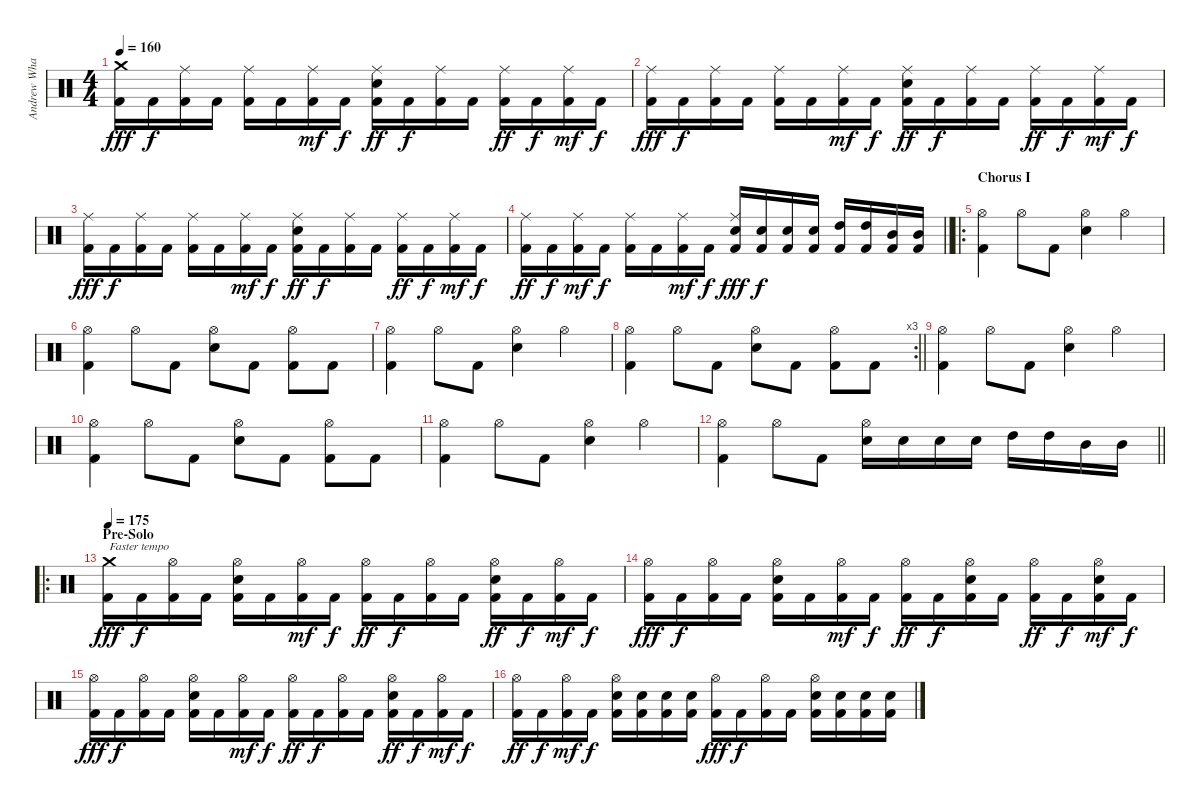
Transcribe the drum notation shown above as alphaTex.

\track ("Andrew Whale" "Andrew Wha") {instrument percussion}
\staff {score}
\articulation defaults
\ts (4 4)
\tempo 160
\clef neutral
\ks c
("Crash medium (hit)" "Kick (hit) 2").16{dy fff} "Kick (hit) 2".16{dy f} ("Ride (middle)" "Kick (hit) 2").16 "Kick (hit) 2".16 ("Ride (middle)" "Kick (hit) 2").16 "Kick (hit) 2".16 ("Ride (middle)" "Kick (hit) 2").16{dy mf} "Kick (hit) 2".16{dy f} ("Ride (middle)" "Snare (hit) 2" "Kick (hit) 2").16{dy ff} "Kick (hit) 2".16{dy f} ("Ride (middle)" "Kick (hit) 2").16 "Kick (hit) 2".16 ("Ride (middle)" "Kick (hit) 2").16{dy ff} "Kick (hit) 2".16{dy f} ("Ride (middle)" "Kick (hit) 2").16{dy mf} "Kick (hit) 2".16{dy f} |
("Ride (middle)" "Kick (hit) 2").16{dy fff} "Kick (hit) 2".16{dy f} ("Ride (middle)" "Kick (hit) 2").16 "Kick (hit) 2".16 ("Ride (middle)" "Kick (hit) 2").16 "Kick (hit) 2".16 ("Ride (middle)" "Kick (hit) 2").16{dy mf} "Kick (hit) 2".16{dy f} ("Ride (middle)" "Snare (hit) 2" "Kick (hit) 2").16{dy ff} "Kick (hit) 2".16{dy f} ("Ride (middle)" "Kick (hit) 2").16 "Kick (hit) 2".16 ("Ride (middle)" "Kick (hit) 2").16{dy ff} "Kick (hit) 2".16{dy f} ("Ride (middle)" "Kick (hit) 2").16{dy mf} "Kick (hit) 2".16{dy f} |
("Ride (middle)" "Kick (hit) 2").16{dy fff} "Kick (hit) 2".16{dy f} ("Ride (middle)" "Kick (hit) 2").16 "Kick (hit) 2".16 ("Ride (middle)" "Kick (hit) 2").16 "Kick (hit) 2".16 ("Ride (middle)" "Kick (hit) 2").16{dy mf} "Kick (hit) 2".16{dy f} ("Ride (middle)" "Snare (hit) 2" "Kick (hit) 2").16{dy ff} "Kick (hit) 2".16{dy f} ("Ride (middle)" "Kick (hit) 2").16 "Kick (hit) 2".16 ("Ride (middle)" "Kick (hit) 2").16{dy ff} "Kick (hit) 2".16{dy f} ("Ride (middle)" "Kick (hit) 2").16{dy mf} "Kick (hit) 2".16{dy f} |
\barLineRight lightlight
("Ride (middle)" "Kick (hit) 2").16{dy ff} "Kick (hit) 2".16{dy f} ("Ride (middle)" "Kick (hit) 2").16{dy mf} "Kick (hit) 2".16{dy f} ("Ride (middle)" "Kick (hit) 2").16 "Kick (hit) 2".16 ("Ride (middle)" "Kick (hit) 2").16{dy mf} "Kick (hit) 2".16{dy f} ("Ride (middle)" "Snare (hit) 2" "Kick (hit) 2").16{dy fff} ("Snare (hit) 2" "Kick (hit) 2").16{dy f} ("Snare (hit) 2" "Kick (hit) 2").16 ("Snare (hit) 2" "Kick (hit) 2").16 ("High Tom (hit)" "Kick (hit) 2").16 ("High Tom (hit)" "Kick (hit) 2").16 ("Mid Tom (hit)" "Kick (hit) 2").16 ("Mid Tom (hit)" "Kick (hit) 2").16 |
\ro
\section ("" "Chorus I")
("Hi-Hat (open)" "Kick (hit) 2").4 "Hi-Hat (open)".8 "Kick (hit) 2".8 ("Hi-Hat (open)" "Snare (hit) 2").4 "Hi-Hat (open)".4 |
("Hi-Hat (open)" "Kick (hit) 2").4 "Hi-Hat (open)".8 "Kick (hit) 2".8 ("Hi-Hat (open)" "Snare (hit) 2").8 "Kick (hit) 2".8 ("Hi-Hat (open)" "Kick (hit) 2").8 "Kick (hit) 2".8 |
("Hi-Hat (open)" "Kick (hit) 2").4 "Hi-Hat (open)".8 "Kick (hit) 2".8 ("Hi-Hat (open)" "Snare (hit) 2").4 "Hi-Hat (open)".4 |
\rc 3
\barLineRight lightlight
("Hi-Hat (open)" "Kick (hit) 2").4 "Hi-Hat (open)".8 "Kick (hit) 2".8 ("Hi-Hat (open)" "Snare (hit) 2").8 "Kick (hit) 2".8 ("Hi-Hat (open)" "Kick (hit) 2").8 "Kick (hit) 2".8 |
("Hi-Hat (open)" "Kick (hit) 2").4 "Hi-Hat (open)".8 "Kick (hit) 2".8 ("Hi-Hat (open)" "Snare (hit) 2").4 "Hi-Hat (open)".4 |
("Hi-Hat (open)" "Kick (hit) 2").4 "Hi-Hat (open)".8 "Kick (hit) 2".8 ("Hi-Hat (open)" "Snare (hit) 2").8 "Kick (hit) 2".8 ("Hi-Hat (open)" "Kick (hit) 2").8 "Kick (hit) 2".8 |
("Hi-Hat (open)" "Kick (hit) 2").4 "Hi-Hat (open)".8 "Kick (hit) 2".8 ("Hi-Hat (open)" "Snare (hit) 2").4 "Hi-Hat (open)".4 |
\barLineRight lightlight
("Hi-Hat (open)" "Kick (hit) 2").4 "Hi-Hat (open)".8 "Kick (hit) 2".8 ("Hi-Hat (open)" "Snare (hit) 2").16 "Snare (hit) 2".16 "Snare (hit) 2".16 "Snare (hit) 2".16 "High Tom (hit)".16 "High Tom (hit)".16 "Mid Tom (hit)".16 "Mid Tom (hit)".16 |
\ro
\section ("" "Pre-Solo")
\tempo 175
("Crash medium (hit)" "Kick (hit) 2").16{txt "Faster tempo" dy fff} "Kick (hit) 2".16{dy f} ("Hi-Hat (open)" "Kick (hit) 2").16 "Kick (hit) 2".16 ("Hi-Hat (open)" "Snare (hit) 2" "Kick (hit) 2").16 "Kick (hit) 2".16 ("Hi-Hat (open)" "Kick (hit) 2").16{dy mf} "Kick (hit) 2".16{dy f} ("Hi-Hat (open)" "Kick (hit) 2").16{dy ff} "Kick (hit) 2".16{dy f} ("Hi-Hat (open)" "Kick (hit) 2").16 "Kick (hit) 2".16 ("Hi-Hat (open)" "Snare (hit) 2" "Kick (hit) 2").16{dy ff} "Kick (hit) 2".16{dy f} ("Hi-Hat (open)" "Kick (hit) 2").16{dy mf} "Kick (hit) 2".16{dy f} |
("Hi-Hat (open)" "Kick (hit) 2").16{dy fff} "Kick (hit) 2".16{dy f} ("Hi-Hat (open)" "Kick (hit) 2").16 "Kick (hit) 2".16 ("Hi-Hat (open)" "Snare (hit) 2" "Kick (hit) 2").16 "Kick (hit) 2".16 ("Hi-Hat (open)" "Kick (hit) 2").16{dy mf} "Kick (hit) 2".16{dy f} ("Hi-Hat (open)" "Kick (hit) 2").16{dy ff} "Kick (hit) 2".16{dy f} ("Hi-Hat (open)" "Snare (hit) 2" "Kick (hit) 2").16 "Kick (hit) 2".16 ("Hi-Hat (open)" "Kick (hit) 2").16{dy ff} "Kick (hit) 2".16{dy f} ("Hi-Hat (open)" "Snare (hit) 2" "Kick (hit) 2").16{dy mf} "Kick (hit) 2".16{dy f} |
("Hi-Hat (open)" "Kick (hit) 2").16{dy fff} "Kick (hit) 2".16{dy f} ("Hi-Hat (open)" "Kick (hit) 2").16 "Kick (hit) 2".16 ("Hi-Hat (open)" "Snare (hit) 2" "Kick (hit) 2").16 "Kick (hit) 2".16 ("Hi-Hat (open)" "Kick (hit) 2").16{dy mf} "Kick (hit) 2".16{dy f} ("Hi-Hat (open)" "Kick (hit) 2").16{dy ff} "Kick (hit) 2".16{dy f} ("Hi-Hat (open)" "Kick (hit) 2").16 "Kick (hit) 2".16 ("Hi-Hat (open)" "Snare (hit) 2" "Kick (hit) 2").16{dy ff} "Kick (hit) 2".16{dy f} ("Hi-Hat (open)" "Kick (hit) 2").16{dy mf} "Kick (hit) 2".16{dy f} |
("Hi-Hat (open)" "Kick (hit) 2").16{dy ff} "Kick (hit) 2".16{dy f} ("Hi-Hat (open)" "Kick (hit) 2").16{dy mf} "Kick (hit) 2".16{dy f} ("Hi-Hat (open)" "Snare (hit) 2" "Kick (hit) 2").16 ("Snare (hit) 2" "Kick (hit) 2").16 ("Snare (hit) 2" "Kick (hit) 2").16 ("Snare (hit) 2" "Kick (hit) 2").16 ("Hi-Hat (open)" "Kick (hit) 2").16{dy fff} "Kick (hit) 2".16{dy f} ("Hi-Hat (open)" "Kick (hit) 2").16 "Kick (hit) 2".16 ("Hi-Hat (open)" "Snare (hit) 2" "Kick (hit) 2").16 ("Snare (hit) 2" "Kick (hit) 2").16 ("Snare (hit) 2" "Kick (hit) 2").16 ("Snare (hit) 2" "Kick (hit) 2").16
